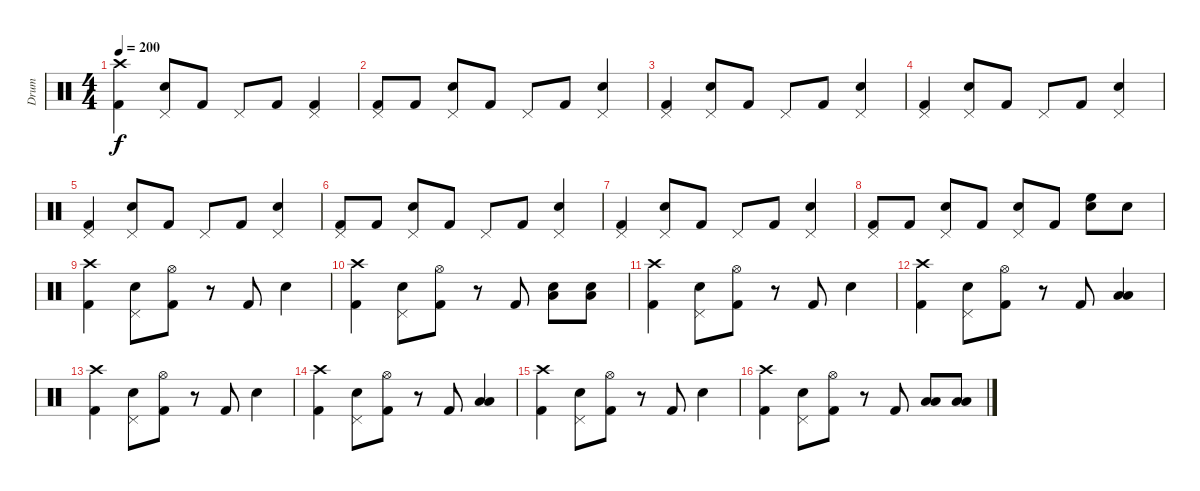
\track ("Drum" "Drum") {instrument percussion}
\staff {score}
\articulation defaults
\ts (4 4)
\tempo 200
\clef neutral
\ks c
("Crash high (hit)" "Kick (hit) 2").4{dy f} ("Pedal Hi-Hat (hit)" "Electric Snare (hit)").8 "Kick (hit) 2".8 "Pedal Hi-Hat (hit)".8 "Kick (hit) 2".8 ("Pedal Hi-Hat (hit)" "Kick (hit) 2").4 |
("Pedal Hi-Hat (hit)" "Kick (hit) 2").8 "Kick (hit) 2".8 ("Pedal Hi-Hat (hit)" "Electric Snare (hit)").8 "Kick (hit) 2".8 "Pedal Hi-Hat (hit)".8 "Kick (hit) 2".8 ("Pedal Hi-Hat (hit)" "Electric Snare (hit)").4 |
("Pedal Hi-Hat (hit)" "Kick (hit) 2").4 ("Pedal Hi-Hat (hit)" "Electric Snare (hit)").8 "Kick (hit) 2".8 "Pedal Hi-Hat (hit)".8 "Kick (hit) 2".8 ("Pedal Hi-Hat (hit)" "Electric Snare (hit)").4 |
("Pedal Hi-Hat (hit)" "Kick (hit) 2").4 ("Pedal Hi-Hat (hit)" "Electric Snare (hit)").8 "Kick (hit) 2".8 "Pedal Hi-Hat (hit)".8 "Kick (hit) 2".8 ("Pedal Hi-Hat (hit)" "Electric Snare (hit)").4 |
("Pedal Hi-Hat (hit)" "Kick (hit) 2").4 ("Pedal Hi-Hat (hit)" "Electric Snare (hit)").8 "Kick (hit) 2".8 "Pedal Hi-Hat (hit)".8 "Kick (hit) 2".8 ("Pedal Hi-Hat (hit)" "Electric Snare (hit)").4 |
("Pedal Hi-Hat (hit)" "Kick (hit) 2").8 "Kick (hit) 2".8 ("Pedal Hi-Hat (hit)" "Electric Snare (hit)").8 "Kick (hit) 2".8 "Pedal Hi-Hat (hit)".8 "Kick (hit) 2".8 ("Pedal Hi-Hat (hit)" "Electric Snare (hit)").4 |
("Pedal Hi-Hat (hit)" "Kick (hit) 2").4 ("Pedal Hi-Hat (hit)" "Electric Snare (hit)").8 "Kick (hit) 2".8 "Pedal Hi-Hat (hit)".8 "Kick (hit) 2".8 ("Pedal Hi-Hat (hit)" "Electric Snare (hit)").4 |
("Pedal Hi-Hat (hit)" "Kick (hit) 2").8 "Kick (hit) 2".8 ("Pedal Hi-Hat (hit)" "Electric Snare (hit)").8 "Kick (hit) 2".8 ("Pedal Hi-Hat (hit)" "Electric Snare (hit)").8 "Kick (hit) 2".8 ("High Floor Tom (hit)" "Electric Snare (hit)").8 "Electric Snare (hit)".8 |
("Crash high (hit)" "Kick (hit) 2").4 ("Pedal Hi-Hat (hit)" "Electric Snare (hit)").8 ("Hi-Hat (open)" "Kick (hit) 2").8 r.8 "Kick (hit) 2".8 "Electric Snare (hit)".4 |
("Crash high (hit)" "Kick (hit) 2").4 ("Pedal Hi-Hat (hit)" "Electric Snare (hit)").8 ("Hi-Hat (open)" "Kick (hit) 2").8 r.8 "Kick (hit) 2".8 ("Low Tom (hit)" "Electric Snare (hit)").8 ("Low Tom (hit)" "Electric Snare (hit)").8 |
("Crash high (hit)" "Kick (hit) 2").4 ("Pedal Hi-Hat (hit)" "Electric Snare (hit)").8 ("Hi-Hat (open)" "Kick (hit) 2").8 r.8 "Kick (hit) 2".8 "Electric Snare (hit)".4 |
("Crash high (hit)" "Kick (hit) 2").4 ("Pedal Hi-Hat (hit)" "Electric Snare (hit)").8 ("Hi-Hat (open)" "Kick (hit) 2").8 r.8 "Kick (hit) 2".8 ("Low Tom (hit)" "Low Floor Tom (hit)").4 |
("Crash high (hit)" "Kick (hit) 2").4 ("Pedal Hi-Hat (hit)" "Electric Snare (hit)").8 ("Hi-Hat (open)" "Kick (hit) 2").8 r.8 "Kick (hit) 2".8 "Electric Snare (hit)".4 |
("Crash high (hit)" "Kick (hit) 2").4 ("Pedal Hi-Hat (hit)" "Electric Snare (hit)").8 ("Hi-Hat (open)" "Kick (hit) 2").8 r.8 "Kick (hit) 2".8 ("Low Tom (hit)" "Low Floor Tom (hit)").4 |
("Crash high (hit)" "Kick (hit) 2").4 ("Pedal Hi-Hat (hit)" "Electric Snare (hit)").8 ("Hi-Hat (open)" "Kick (hit) 2").8 r.8 "Kick (hit) 2".8 "Electric Snare (hit)".4 |
("Crash high (hit)" "Kick (hit) 2").4 ("Pedal Hi-Hat (hit)" "Electric Snare (hit)").8 ("Hi-Hat (open)" "Kick (hit) 2").8 r.8 "Kick (hit) 2".8 ("Low Tom (hit)" "Low Floor Tom (hit)").8 ("Low Tom (hit)" "Low Floor Tom (hit)").8
